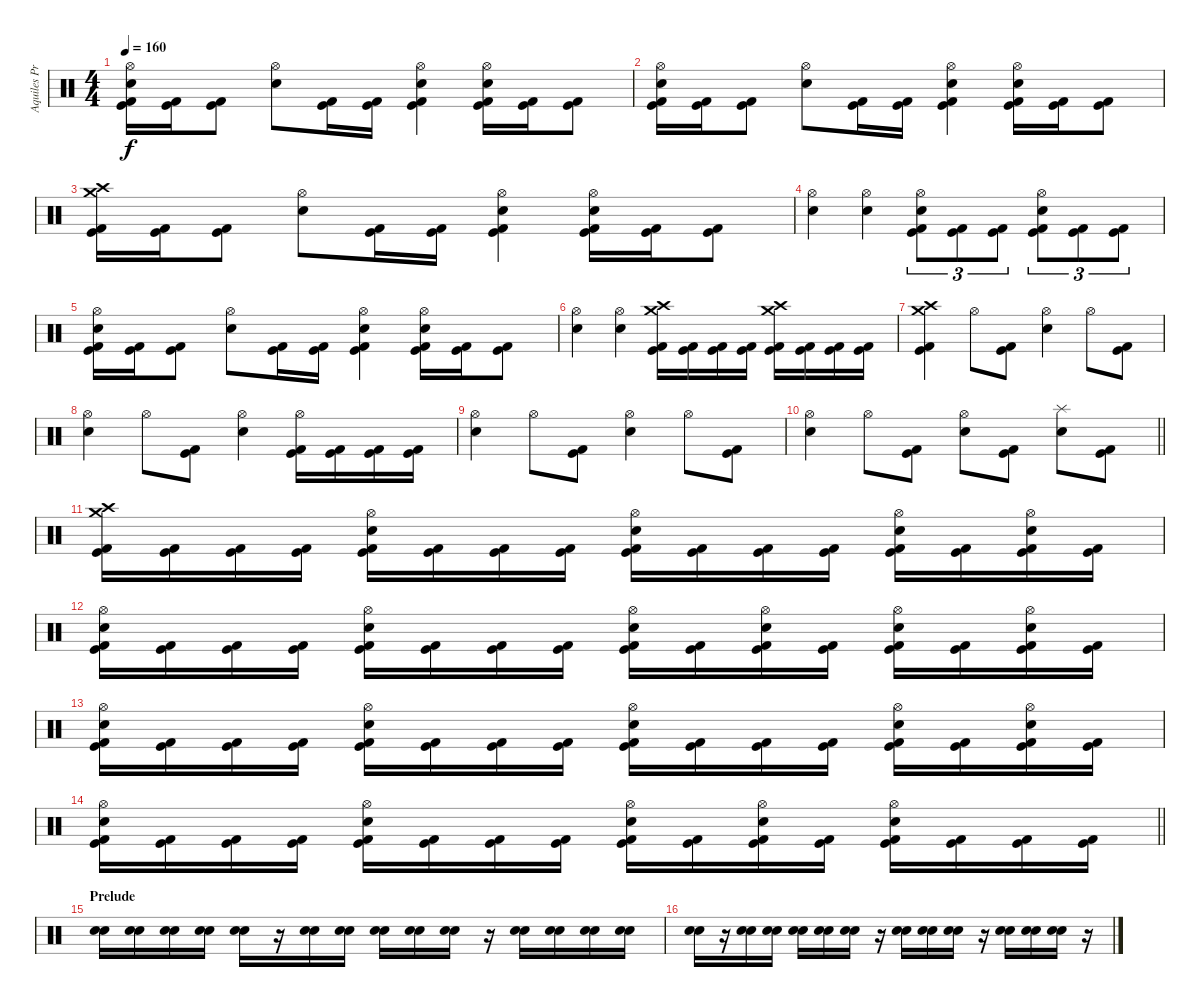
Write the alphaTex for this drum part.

\track ("Aquiles Priester" "Aquiles Pr") {instrument percussion}
\staff {score}
\articulation defaults
\ts (4 4)
\tempo 160
\clef neutral
\ks c
("Hi-Hat (open)" "Electric Snare (hit)" "Kick (hit) 2" "Kick (hit)").16{dy f} ("Kick (hit) 2" "Kick (hit)").16 ("Kick (hit) 2" "Kick (hit)").8 ("Hi-Hat (open)" "Electric Snare (hit)").8 ("Kick (hit)" "Kick (hit) 2").16 ("Kick (hit)" "Kick (hit) 2").16 ("Hi-Hat (open)" "Electric Snare (hit)" "Kick (hit)" "Kick (hit) 2").4 ("Hi-Hat (open)" "Electric Snare (hit)" "Kick (hit)" "Kick (hit) 2").16 ("Kick (hit) 2" "Kick (hit)").16 ("Kick (hit)" "Kick (hit) 2").8 |
("Hi-Hat (open)" "Electric Snare (hit)" "Kick (hit) 2" "Kick (hit)").16 ("Kick (hit) 2" "Kick (hit)").16 ("Kick (hit) 2" "Kick (hit)").8 ("Hi-Hat (open)" "Electric Snare (hit)").8 ("Kick (hit)" "Kick (hit) 2").16 ("Kick (hit)" "Kick (hit) 2").16 ("Hi-Hat (open)" "Electric Snare (hit)" "Kick (hit)" "Kick (hit) 2").4 ("Hi-Hat (open)" "Electric Snare (hit)" "Kick (hit)" "Kick (hit) 2").16 ("Kick (hit) 2" "Kick (hit)").16 ("Kick (hit)" "Kick (hit) 2").8 |
("Crash medium (hit)" "Crash high (hit)" "Kick (hit) 2" "Kick (hit)").16 ("Kick (hit) 2" "Kick (hit)").16 ("Kick (hit) 2" "Kick (hit)").8 ("Hi-Hat (open)" "Electric Snare (hit)").8 ("Kick (hit)" "Kick (hit) 2").16 ("Kick (hit)" "Kick (hit) 2").16 ("Hi-Hat (open)" "Electric Snare (hit)" "Kick (hit)" "Kick (hit) 2").4 ("Hi-Hat (open)" "Electric Snare (hit)" "Kick (hit)" "Kick (hit) 2").16 ("Kick (hit) 2" "Kick (hit)").16 ("Kick (hit)" "Kick (hit) 2").8 |
("Hi-Hat (open)" "Electric Snare (hit)").4 ("Hi-Hat (open)" "Electric Snare (hit)").4 ("Hi-Hat (open)" "Electric Snare (hit)" "Kick (hit) 2" "Kick (hit)").8{tu (3 2)} ("Kick (hit) 2" "Kick (hit)").8{tu (3 2)} ("Kick (hit) 2" "Kick (hit)").8{tu (3 2)} ("Hi-Hat (open)" "Electric Snare (hit)" "Kick (hit) 2" "Kick (hit)").8{tu (3 2)} ("Kick (hit) 2" "Kick (hit)").8{tu (3 2)} ("Kick (hit) 2" "Kick (hit)").8{tu (3 2)} |
("Hi-Hat (open)" "Electric Snare (hit)" "Kick (hit) 2" "Kick (hit)").16 ("Kick (hit) 2" "Kick (hit)").16 ("Kick (hit) 2" "Kick (hit)").8 ("Hi-Hat (open)" "Electric Snare (hit)").8 ("Kick (hit)" "Kick (hit) 2").16 ("Kick (hit)" "Kick (hit) 2").16 ("Hi-Hat (open)" "Electric Snare (hit)" "Kick (hit)" "Kick (hit) 2").4 ("Hi-Hat (open)" "Electric Snare (hit)" "Kick (hit)" "Kick (hit) 2").16 ("Kick (hit) 2" "Kick (hit)").16 ("Kick (hit)" "Kick (hit) 2").8 |
("Hi-Hat (open)" "Electric Snare (hit)").4 ("Hi-Hat (open)" "Electric Snare (hit)").4 ("Crash medium (hit)" "Crash high (hit)" "Kick (hit)" "Kick (hit) 2").16 ("Kick (hit)" "Kick (hit) 2").16 ("Kick (hit)" "Kick (hit) 2").16 ("Kick (hit)" "Kick (hit) 2").16 ("Crash medium (hit)" "Crash high (hit)" "Kick (hit)" "Kick (hit) 2").16 ("Kick (hit)" "Kick (hit) 2").16 ("Kick (hit)" "Kick (hit) 2").16 ("Kick (hit)" "Kick (hit) 2").16 |
("Crash medium (hit)" "Crash high (hit)" "Kick (hit)" "Kick (hit) 2").4 "Hi-Hat (open)".8 ("Kick (hit)" "Kick (hit) 2").8 ("Hi-Hat (open)" "Electric Snare (hit)").4 "Hi-Hat (open)".8 ("Kick (hit) 2" "Kick (hit)").8 |
("Hi-Hat (open)" "Electric Snare (hit)").4 "Hi-Hat (open)".8 ("Kick (hit)" "Kick (hit) 2").8 ("Hi-Hat (open)" "Electric Snare (hit)").4 ("Hi-Hat (open)" "Kick (hit)" "Kick (hit) 2").16 ("Kick (hit)" "Kick (hit) 2").16 ("Kick (hit)" "Kick (hit) 2").16 ("Kick (hit)" "Kick (hit) 2").16 |
("Hi-Hat (open)" "Electric Snare (hit)").4 "Hi-Hat (open)".8 ("Kick (hit)" "Kick (hit) 2").8 ("Hi-Hat (open)" "Electric Snare (hit)").4 "Hi-Hat (open)".8 ("Kick (hit)" "Kick (hit) 2").8 |
\barLineRight lightlight
("Hi-Hat (open)" "Electric Snare (hit)").4 "Hi-Hat (open)".8 ("Kick (hit)" "Kick (hit) 2").8 ("Hi-Hat (open)" "Electric Snare (hit)").8 ("Kick (hit)" "Kick (hit) 2").8 ("Splash (hit)" "Electric Snare (hit)").8 ("Kick (hit)" "Kick (hit) 2").8 |
("Crash medium (hit)" "Crash high (hit)" "Kick (hit) 2" "Kick (hit)").16 ("Kick (hit) 2" "Kick (hit)").16 ("Kick (hit) 2" "Kick (hit)").16 ("Kick (hit) 2" "Kick (hit)").16 ("Hi-Hat (open)" "Electric Snare (hit)" "Kick (hit) 2" "Kick (hit)").16 ("Kick (hit) 2" "Kick (hit)").16 ("Kick (hit) 2" "Kick (hit)").16 ("Kick (hit) 2" "Kick (hit)").16 ("Hi-Hat (open)" "Electric Snare (hit)" "Kick (hit) 2" "Kick (hit)").16 ("Kick (hit) 2" "Kick (hit)").16 ("Kick (hit) 2" "Kick (hit)").16 ("Kick (hit) 2" "Kick (hit)").16 ("Hi-Hat (open)" "Electric Snare (hit)" "Kick (hit) 2" "Kick (hit)").16 ("Kick (hit) 2" "Kick (hit)").16 ("Hi-Hat (open)" "Electric Snare (hit)" "Kick (hit) 2" "Kick (hit)").16 ("Kick (hit) 2" "Kick (hit)").16 |
("Hi-Hat (open)" "Electric Snare (hit)" "Kick (hit) 2" "Kick (hit)").16 ("Kick (hit) 2" "Kick (hit)").16 ("Kick (hit) 2" "Kick (hit)").16 ("Kick (hit) 2" "Kick (hit)").16 ("Hi-Hat (open)" "Electric Snare (hit)" "Kick (hit) 2" "Kick (hit)").16 ("Kick (hit) 2" "Kick (hit)").16 ("Kick (hit) 2" "Kick (hit)").16 ("Kick (hit) 2" "Kick (hit)").16 ("Hi-Hat (open)" "Electric Snare (hit)" "Kick (hit) 2" "Kick (hit)").16 ("Kick (hit) 2" "Kick (hit)").16 ("Hi-Hat (open)" "Electric Snare (hit)" "Kick (hit) 2" "Kick (hit)").16 ("Kick (hit) 2" "Kick (hit)").16 ("Hi-Hat (open)" "Electric Snare (hit)" "Kick (hit) 2" "Kick (hit)").16 ("Kick (hit) 2" "Kick (hit)").16 ("Hi-Hat (open)" "Electric Snare (hit)" "Kick (hit) 2" "Kick (hit)").16 ("Kick (hit) 2" "Kick (hit)").16 |
("Hi-Hat (open)" "Electric Snare (hit)" "Kick (hit) 2" "Kick (hit)").16 ("Kick (hit) 2" "Kick (hit)").16 ("Kick (hit) 2" "Kick (hit)").16 ("Kick (hit) 2" "Kick (hit)").16 ("Hi-Hat (open)" "Electric Snare (hit)" "Kick (hit) 2" "Kick (hit)").16 ("Kick (hit) 2" "Kick (hit)").16 ("Kick (hit) 2" "Kick (hit)").16 ("Kick (hit) 2" "Kick (hit)").16 ("Hi-Hat (open)" "Electric Snare (hit)" "Kick (hit) 2" "Kick (hit)").16 ("Kick (hit) 2" "Kick (hit)").16 ("Kick (hit) 2" "Kick (hit)").16 ("Kick (hit) 2" "Kick (hit)").16 ("Hi-Hat (open)" "Electric Snare (hit)" "Kick (hit) 2" "Kick (hit)").16 ("Kick (hit) 2" "Kick (hit)").16 ("Hi-Hat (open)" "Electric Snare (hit)" "Kick (hit) 2" "Kick (hit)").16 ("Kick (hit) 2" "Kick (hit)").16 |
\barLineRight lightlight
("Hi-Hat (open)" "Electric Snare (hit)" "Kick (hit) 2" "Kick (hit)").16 ("Kick (hit) 2" "Kick (hit)").16 ("Kick (hit) 2" "Kick (hit)").16 ("Kick (hit) 2" "Kick (hit)").16 ("Hi-Hat (open)" "Electric Snare (hit)" "Kick (hit) 2" "Kick (hit)").16 ("Kick (hit) 2" "Kick (hit)").16 ("Kick (hit) 2" "Kick (hit)").16 ("Kick (hit) 2" "Kick (hit)").16 ("Hi-Hat (open)" "Electric Snare (hit)" "Kick (hit) 2" "Kick (hit)").16 ("Kick (hit) 2" "Kick (hit)").16 ("Hi-Hat (open)" "Electric Snare (hit)" "Kick (hit) 2" "Kick (hit)").16 ("Kick (hit) 2" "Kick (hit)").16 ("Hi-Hat (open)" "Electric Snare (hit)" "Kick (hit) 2" "Kick (hit)").16 ("Kick (hit) 2" "Kick (hit)").16 ("Kick (hit) 2" "Kick (hit)").16 ("Kick (hit) 2" "Kick (hit)").16 |
\section ("" "Prelude")
("Snare (hit) 2" "Electric Snare (hit)").16 ("Snare (hit) 2" "Electric Snare (hit)").16 ("Snare (hit) 2" "Electric Snare (hit)").16 ("Snare (hit) 2" "Electric Snare (hit)").16 ("Snare (hit) 2" "Electric Snare (hit)").16 r.16 ("Snare (hit) 2" "Electric Snare (hit)").16 ("Snare (hit) 2" "Electric Snare (hit)").16 ("Snare (hit) 2" "Electric Snare (hit)").16 ("Snare (hit) 2" "Electric Snare (hit)").16 ("Snare (hit) 2" "Electric Snare (hit)").16 r.16 ("Snare (hit) 2" "Electric Snare (hit)").16 ("Snare (hit) 2" "Electric Snare (hit)").16 ("Snare (hit) 2" "Electric Snare (hit)").16 ("Snare (hit) 2" "Electric Snare (hit)").16 |
("Snare (hit) 2" "Electric Snare (hit)").16 r.16 ("Snare (hit) 2" "Electric Snare (hit)").16 ("Snare (hit) 2" "Electric Snare (hit)").16 ("Snare (hit) 2" "Electric Snare (hit)").16 ("Snare (hit) 2" "Electric Snare (hit)").16 ("Snare (hit) 2" "Electric Snare (hit)").16 r.16 ("Snare (hit) 2" "Electric Snare (hit)").16 ("Snare (hit) 2" "Electric Snare (hit)").16 ("Snare (hit) 2" "Electric Snare (hit)").16 r.16 ("Snare (hit) 2" "Electric Snare (hit)").16 ("Snare (hit) 2" "Electric Snare (hit)").16 ("Snare (hit) 2" "Electric Snare (hit)").16 r.16
